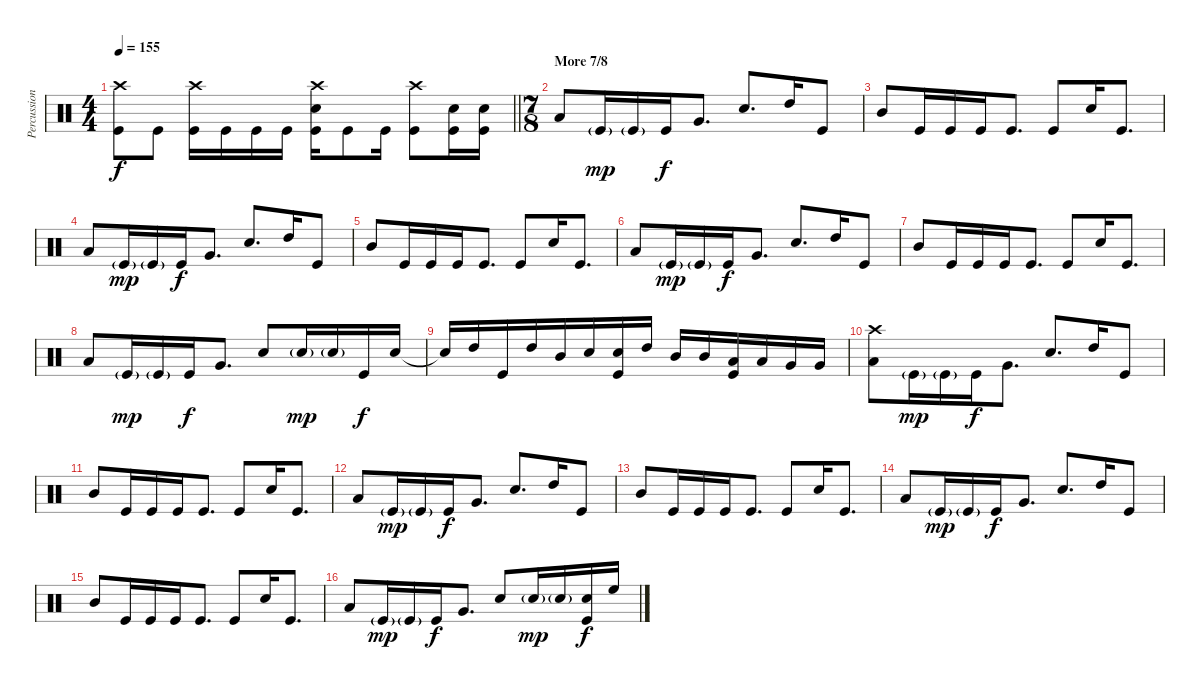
\track ("Percussion" "Percussion") {instrument percussion}
\staff {score}
\articulation defaults
\ts (4 4)
\tempo 155
\clef neutral
\barLineRight lightlight
\ks c
("Crash high (hit)" "Kick (hit)").8{dy f} "Kick (hit)".8 ("Crash high (hit)" "Kick (hit)").16 "Kick (hit)".16 "Kick (hit)".16 "Kick (hit)".16 ("Crash high (hit)" "Electric Snare (hit)" "Kick (hit)").16 "Kick (hit)".8 "Kick (hit)".16 ("Crash high (hit)" "Kick (hit)").8 ("Electric Snare (hit)" "Kick (hit)").16 ("Electric Snare (hit)" "Kick (hit)").16 |
\ts (7 8)
\section ("" "More 7/8")
"Low Floor Tom (hit)".8 "Kick (hit)"{g}.16{dy mp} "Kick (hit)"{g}.16 "Kick (hit)".16{dy f} "Very Low Tom (hit)".8{d} "Electric Snare (hit)".8{d} "High Tom (hit)".16 "Kick (hit)".8 |
"Mid Tom (hit)".8 "Kick (hit)".16 "Kick (hit)".16 "Kick (hit)".16 "Kick (hit)".8{d} "Kick (hit)".8 "Electric Snare (hit)".16 "Kick (hit)".8{d} |
"Low Floor Tom (hit)".8 "Kick (hit)"{g}.16{dy mp} "Kick (hit)"{g}.16 "Kick (hit)".16{dy f} "Very Low Tom (hit)".8{d} "Electric Snare (hit)".8{d} "High Tom (hit)".16 "Kick (hit)".8 |
"Mid Tom (hit)".8 "Kick (hit)".16 "Kick (hit)".16 "Kick (hit)".16 "Kick (hit)".8{d} "Kick (hit)".8 "Electric Snare (hit)".16 "Kick (hit)".8{d} |
"Low Floor Tom (hit)".8 "Kick (hit)"{g}.16{dy mp} "Kick (hit)"{g}.16 "Kick (hit)".16{dy f} "Very Low Tom (hit)".8{d} "Electric Snare (hit)".8{d} "High Tom (hit)".16 "Kick (hit)".8 |
"Mid Tom (hit)".8 "Kick (hit)".16 "Kick (hit)".16 "Kick (hit)".16 "Kick (hit)".8{d} "Kick (hit)".8 "Electric Snare (hit)".16 "Kick (hit)".8{d} |
"Low Floor Tom (hit)".8 "Kick (hit)"{g}.16{dy mp} "Kick (hit)"{g}.16 "Kick (hit)".16{dy f} "Very Low Tom (hit)".8{d} "Electric Snare (hit)".8 "Electric Snare (hit)"{g}.16{dy mp} "Electric Snare (hit)"{g}.16 "Kick (hit)".16{dy f} "Electric Snare (hit)".16 |
"Snare (hit)"{t}.16 "High Tom (hit)".16 "Kick (hit)".16 "High Tom (hit)".16 "Mid Tom (hit)".16 "Electric Snare (hit)".16 ("Electric Snare (hit)" "Kick (hit)").16 "High Tom (hit)".16 "Mid Tom (hit)".16 "Mid Tom (hit)".16 ("Low Tom (hit)" "Kick (hit)").16 "Low Tom (hit)".16 "Very Low Tom (hit)".16 "Very Low Tom (hit)".16 |
("Crash high (hit)" "Low Floor Tom (hit)").8 "Kick (hit)"{g}.16{dy mp} "Kick (hit)"{g}.16 "Kick (hit)".16{dy f} "Very Low Tom (hit)".8{d} "Electric Snare (hit)".8{d} "High Tom (hit)".16 "Kick (hit)".8 |
"Mid Tom (hit)".8 "Kick (hit)".16 "Kick (hit)".16 "Kick (hit)".16 "Kick (hit)".8{d} "Kick (hit)".8 "Electric Snare (hit)".16 "Kick (hit)".8{d} |
"Low Floor Tom (hit)".8 "Kick (hit)"{g}.16{dy mp} "Kick (hit)"{g}.16 "Kick (hit)".16{dy f} "Very Low Tom (hit)".8{d} "Electric Snare (hit)".8{d} "High Tom (hit)".16 "Kick (hit)".8 |
"Mid Tom (hit)".8 "Kick (hit)".16 "Kick (hit)".16 "Kick (hit)".16 "Kick (hit)".8{d} "Kick (hit)".8 "Electric Snare (hit)".16 "Kick (hit)".8{d} |
"Low Floor Tom (hit)".8 "Kick (hit)"{g}.16{dy mp} "Kick (hit)"{g}.16 "Kick (hit)".16{dy f} "Very Low Tom (hit)".8{d} "Electric Snare (hit)".8{d} "High Tom (hit)".16 "Kick (hit)".8 |
"Mid Tom (hit)".8 "Kick (hit)".16 "Kick (hit)".16 "Kick (hit)".16 "Kick (hit)".8{d} "Kick (hit)".8 "Electric Snare (hit)".16 "Kick (hit)".8{d} |
"Low Floor Tom (hit)".8 "Kick (hit)"{g}.16{dy mp} "Kick (hit)"{g}.16 "Kick (hit)".16{dy f} "Very Low Tom (hit)".8{d} "Electric Snare (hit)".8 "Electric Snare (hit)"{g}.16{dy mp} "Electric Snare (hit)"{g}.16 ("Electric Snare (hit)" "Kick (hit)").16{dy f} "High Floor Tom (hit)".16
